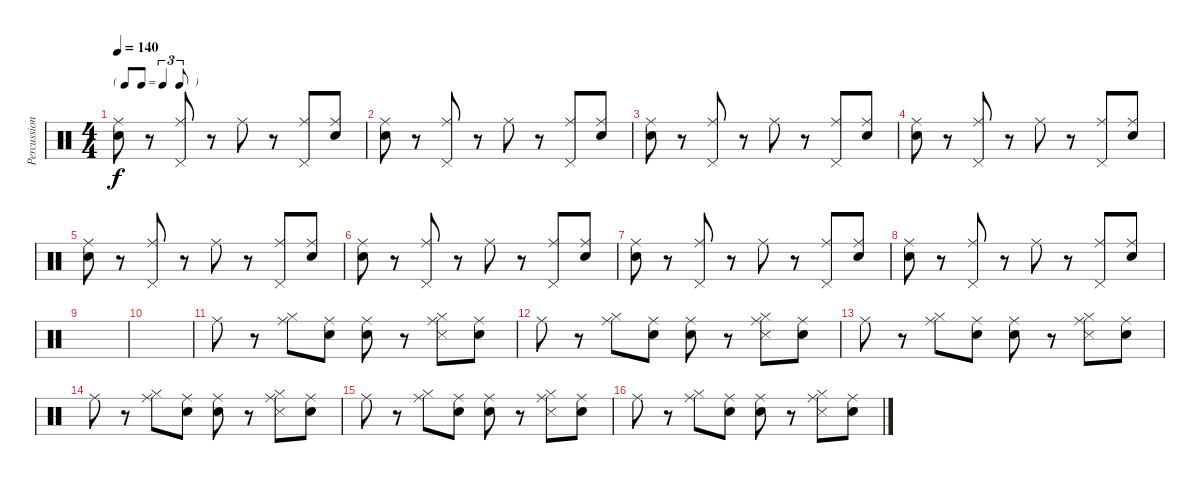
\track ("Percussions" "Percussion") {instrument percussion}
\staff {score}
\articulation defaults
\ts (4 4)
\tf triplet8th
\tempo 140
\clef neutral
\ks c
("Snare (hit)" "Ride (middle)").8{dy f} r.8 ("Pedal Hi-Hat (hit)" "Ride (middle)").8 r.8 "Ride (middle)".8 r.8 ("Pedal Hi-Hat (hit)" "Ride (middle)").8 ("Snare (hit)" "Ride (middle)").8 |
("Snare (hit)" "Ride (middle)").8 r.8 ("Pedal Hi-Hat (hit)" "Ride (middle)").8 r.8 "Ride (middle)".8 r.8 ("Pedal Hi-Hat (hit)" "Ride (middle)").8 ("Snare (hit)" "Ride (middle)").8 |
("Snare (hit)" "Ride (middle)").8 r.8 ("Pedal Hi-Hat (hit)" "Ride (middle)").8 r.8 "Ride (middle)".8 r.8 ("Pedal Hi-Hat (hit)" "Ride (middle)").8 ("Snare (hit)" "Ride (middle)").8 |
("Snare (hit)" "Ride (middle)").8 r.8 ("Pedal Hi-Hat (hit)" "Ride (middle)").8 r.8 "Ride (middle)".8 r.8 ("Pedal Hi-Hat (hit)" "Ride (middle)").8 ("Snare (hit)" "Ride (middle)").8 |
("Snare (hit)" "Ride (middle)").8 r.8 ("Pedal Hi-Hat (hit)" "Ride (middle)").8 r.8 "Ride (middle)".8 r.8 ("Pedal Hi-Hat (hit)" "Ride (middle)").8 ("Snare (hit)" "Ride (middle)").8 |
("Snare (hit)" "Ride (middle)").8 r.8 ("Pedal Hi-Hat (hit)" "Ride (middle)").8 r.8 "Ride (middle)".8 r.8 ("Pedal Hi-Hat (hit)" "Ride (middle)").8 ("Snare (hit)" "Ride (middle)").8 |
("Snare (hit)" "Ride (middle)").8 r.8 ("Pedal Hi-Hat (hit)" "Ride (middle)").8 r.8 "Ride (middle)".8 r.8 ("Pedal Hi-Hat (hit)" "Ride (middle)").8 ("Snare (hit)" "Ride (middle)").8 |
("Snare (hit)" "Ride (middle)").8 r.8 ("Pedal Hi-Hat (hit)" "Ride (middle)").8 r.8 "Ride (middle)".8 r.8 ("Pedal Hi-Hat (hit)" "Ride (middle)").8 ("Snare (hit)" "Ride (middle)").8 |
|
|
"Ride (middle)".8 r.8 ("Hi-Hat (closed)" "Ride (middle)").8 ("Snare (hit)" "Ride (middle)").8 ("Snare (hit)" "Ride (middle)").8 r.8 ("Hi-Hat (closed)" "Snare (side stick) 3" "Ride (middle)").8 ("Snare (hit)" "Ride (middle)").8 |
"Ride (middle)".8 r.8 ("Hi-Hat (closed)" "Ride (middle)").8 ("Snare (hit)" "Ride (middle)").8 ("Snare (hit)" "Ride (middle)").8 r.8 ("Hi-Hat (closed)" "Snare (side stick) 3" "Ride (middle)").8 ("Snare (hit)" "Ride (middle)").8 |
"Ride (middle)".8 r.8 ("Hi-Hat (closed)" "Ride (middle)").8 ("Snare (hit)" "Ride (middle)").8 ("Snare (hit)" "Ride (middle)").8 r.8 ("Hi-Hat (closed)" "Snare (side stick) 3" "Ride (middle)").8 ("Snare (hit)" "Ride (middle)").8 |
"Ride (middle)".8 r.8 ("Hi-Hat (closed)" "Ride (middle)").8 ("Snare (hit)" "Ride (middle)").8 ("Snare (hit)" "Ride (middle)").8 r.8 ("Hi-Hat (closed)" "Snare (side stick) 3" "Ride (middle)").8 ("Snare (hit)" "Ride (middle)").8 |
"Ride (middle)".8 r.8 ("Hi-Hat (closed)" "Ride (middle)").8 ("Snare (hit)" "Ride (middle)").8 ("Snare (hit)" "Ride (middle)").8 r.8 ("Hi-Hat (closed)" "Snare (side stick) 3" "Ride (middle)").8 ("Snare (hit)" "Ride (middle)").8 |
"Ride (middle)".8 r.8 ("Hi-Hat (closed)" "Ride (middle)").8 ("Snare (hit)" "Ride (middle)").8 ("Snare (hit)" "Ride (middle)").8 r.8 ("Hi-Hat (closed)" "Snare (side stick) 3" "Ride (middle)").8 ("Snare (hit)" "Ride (middle)").8
